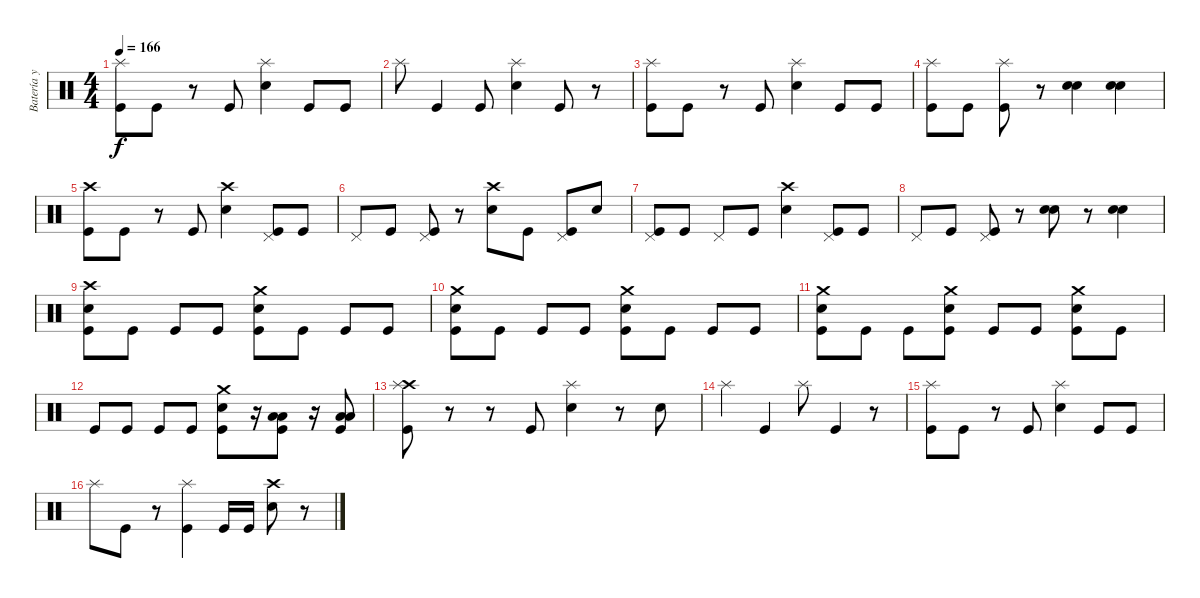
\track ("Batería y letras" "Batería y ") {instrument percussion}
\staff {score}
\articulation defaults
\ts (4 4)
\tempo 166
\clef neutral
\ks c
("Kick (hit)" "Splash (hit)").8{dy f} "Kick (hit)".8 r.8 "Kick (hit)".8 ("Electric Snare (hit)" "Splash (hit)").4 "Kick (hit)".8 "Kick (hit)".8 |
"Splash (hit)".8 "Kick (hit)".4 "Kick (hit)".8 ("Electric Snare (hit)" "Splash (hit)").4 "Kick (hit)".8 r.8 |
("Kick (hit)" "Splash (hit)").8 "Kick (hit)".8 r.8 "Kick (hit)".8 ("Electric Snare (hit)" "Splash (hit)").4 "Kick (hit)".8 "Kick (hit)".8 |
("Kick (hit)" "Splash (hit)").8 "Kick (hit)".8 ("Kick (hit)" "Splash (hit)").8 r.8 ("Electric Snare (hit)" "Electric Snare (hit)").4 ("Electric Snare (hit)" "Electric Snare (hit)").4 |
("Kick (hit)" "Crash high (hit)").8 "Kick (hit)".8 r.8 "Kick (hit)".8 ("Electric Snare (hit)" "Crash high (hit)").4 ("Kick (hit)" "Pedal Hi-Hat (hit)").8 "Kick (hit)".8 |
"Pedal Hi-Hat (hit)".8 "Kick (hit)".8 ("Kick (hit)" "Pedal Hi-Hat (hit)").8 r.8 ("Electric Snare (hit)" "Crash high (hit)").8 "Kick (hit)".8 ("Kick (hit)" "Pedal Hi-Hat (hit)").8 "Electric Snare (hit)".8 |
("Kick (hit)" "Pedal Hi-Hat (hit)").8 "Kick (hit)".8 "Pedal Hi-Hat (hit)".8 "Kick (hit)".8 ("Electric Snare (hit)" "Crash high (hit)").4 ("Kick (hit)" "Pedal Hi-Hat (hit)").8 "Kick (hit)".8 |
"Pedal Hi-Hat (hit)".8 "Kick (hit)".8 ("Kick (hit)" "Pedal Hi-Hat (hit)").8 r.8 ("Electric Snare (hit)" "Electric Snare (hit)").8 r.8 ("Electric Snare (hit)" "Electric Snare (hit)").4 |
("Electric Snare (hit)" "Kick (hit)" "Crash high (hit)").8 "Kick (hit)".8 "Kick (hit)".8 "Kick (hit)".8 ("Electric Snare (hit)" "Kick (hit)" "Crash medium (hit)").8 "Kick (hit)".8 "Kick (hit)".8 "Kick (hit)".8 |
("Electric Snare (hit)" "Kick (hit)" "Crash medium (hit)").8 "Kick (hit)".8 "Kick (hit)".8 "Kick (hit)".8 ("Electric Snare (hit)" "Kick (hit)" "Crash medium (hit)").8 "Kick (hit)".8 "Kick (hit)".8 "Kick (hit)".8 |
("Electric Snare (hit)" "Kick (hit)" "Crash medium (hit)").8 "Kick (hit)".8 "Kick (hit)".8 ("Electric Snare (hit)" "Kick (hit)" "Crash medium (hit)").8 "Kick (hit)".8 "Kick (hit)".8 ("Electric Snare (hit)" "Kick (hit)" "Crash medium (hit)").8 "Kick (hit)".8 |
"Kick (hit)".8 "Kick (hit)".8 "Kick (hit)".8 "Kick (hit)".8 ("Electric Snare (hit)" "Kick (hit)" "Crash medium (hit)").8 r.16 ("Low Floor Tom (hit)" "Kick (hit)" "Low Floor Tom (hit)").8 r.16 ("Low Floor Tom (hit)" "Kick (hit)" "Low Floor Tom (hit)").8 |
("Kick (hit)" "Crash high (hit)" "Splash (hit)").8 r.8 r.8 "Kick (hit)".8 ("Electric Snare (hit)" "Splash (hit)").4 r.8 "Electric Snare (hit)".8 |
"Splash (hit)".4 "Kick (hit)".4 "Splash (hit)".8 "Kick (hit)".4 r.8 |
("Kick (hit)" "Splash (hit)").8 "Kick (hit)".8 r.8 "Kick (hit)".8 ("Electric Snare (hit)" "Splash (hit)").4 "Kick (hit)".8 "Kick (hit)".8 |
"Splash (hit)".8 "Kick (hit)".8 r.8 ("Kick (hit)" "Splash (hit)").4 "Kick (hit)".16 "Kick (hit)".16 ("Electric Snare (hit)" "Crash high (hit)").8 r.8
